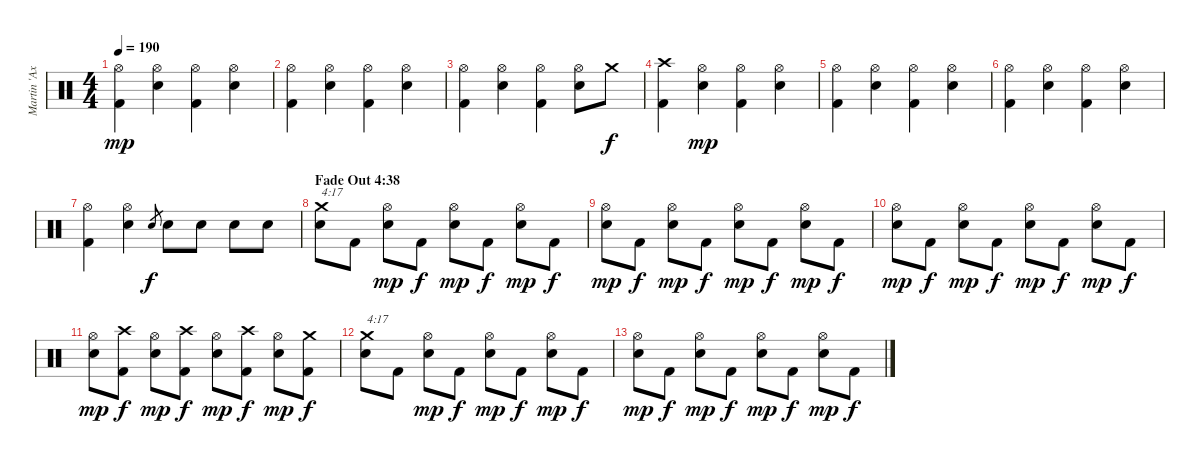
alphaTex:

\track ("Martin 'Axe' Axenroth" "Martin 'Ax") {instrument percussion}
\staff {score}
\articulation defaults
\ts (4 4)
\tempo 190
\clef neutral
\ks c
("Kick (hit) 2" "Hi-Hat (open)").4{dy mp} ("Electric Snare (hit)" "Hi-Hat (open)").4 ("Kick (hit) 2" "Hi-Hat (open)").4 ("Electric Snare (hit)" "Hi-Hat (open)").4 |
("Kick (hit) 2" "Hi-Hat (open)").4 ("Electric Snare (hit)" "Hi-Hat (open)").4 ("Kick (hit) 2" "Hi-Hat (open)").4 ("Electric Snare (hit)" "Hi-Hat (open)").4 |
("Kick (hit) 2" "Hi-Hat (open)").4 ("Electric Snare (hit)" "Hi-Hat (open)").4 ("Kick (hit) 2" "Hi-Hat (open)").4 ("Electric Snare (hit)" "Hi-Hat (open)").8 "Crash medium (hit)".8{dy f} |
("Kick (hit) 2" "Crash high (hit)").4 ("Electric Snare (hit)" "Hi-Hat (open)").4{dy mp} ("Kick (hit) 2" "Hi-Hat (open)").4 ("Electric Snare (hit)" "Hi-Hat (open)").4 |
("Kick (hit) 2" "Hi-Hat (open)").4 ("Electric Snare (hit)" "Hi-Hat (open)").4 ("Kick (hit) 2" "Hi-Hat (open)").4 ("Electric Snare (hit)" "Hi-Hat (open)").4 |
("Kick (hit) 2" "Hi-Hat (open)").4 ("Electric Snare (hit)" "Hi-Hat (open)").4 ("Kick (hit) 2" "Hi-Hat (open)").4 ("Electric Snare (hit)" "Hi-Hat (open)").4 |
("Kick (hit) 2" "Hi-Hat (open)").4 ("Electric Snare (hit)" "Hi-Hat (open)").4 "Electric Snare (hit)".8{gr dy f} "Electric Snare (hit)".8 "Electric Snare (hit)".8 "Electric Snare (hit)".8 "Electric Snare (hit)".8 |
\section ("" "Fade Out 4:38")
("Electric Snare (hit)" "Crash medium (hit)").8{txt "4:17"} "Kick (hit) 2".8 ("Electric Snare (hit)" "Hi-Hat (open)").8{dy mp} "Kick (hit) 2".8{dy f} ("Electric Snare (hit)" "Hi-Hat (open)").8{dy mp} "Kick (hit) 2".8{dy f} ("Electric Snare (hit)" "Hi-Hat (open)").8{dy mp} "Kick (hit) 2".8{dy f} |
("Electric Snare (hit)" "Hi-Hat (open)").8{dy mp} "Kick (hit) 2".8{dy f} ("Electric Snare (hit)" "Hi-Hat (open)").8{dy mp} "Kick (hit) 2".8{dy f} ("Electric Snare (hit)" "Hi-Hat (open)").8{dy mp} "Kick (hit) 2".8{dy f} ("Electric Snare (hit)" "Hi-Hat (open)").8{dy mp} "Kick (hit) 2".8{dy f} |
("Electric Snare (hit)" "Hi-Hat (open)").8{dy mp} "Kick (hit) 2".8{dy f} ("Electric Snare (hit)" "Hi-Hat (open)").8{dy mp} "Kick (hit) 2".8{dy f} ("Electric Snare (hit)" "Hi-Hat (open)").8{dy mp} "Kick (hit) 2".8{dy f} ("Electric Snare (hit)" "Hi-Hat (open)").8{dy mp} "Kick (hit) 2".8{dy f} |
("Electric Snare (hit)" "Hi-Hat (open)").8{dy mp} ("Kick (hit) 2" "Crash high (hit)").8{dy f} ("Electric Snare (hit)" "Hi-Hat (open)").8{dy mp} ("Kick (hit) 2" "Crash high (hit)").8{dy f} ("Electric Snare (hit)" "Hi-Hat (open)").8{dy mp} ("Kick (hit) 2" "Crash high (hit)").8{dy f} ("Electric Snare (hit)" "Hi-Hat (open)").8{dy mp} ("Kick (hit) 2" "Crash medium (hit)").8{dy f} |
("Electric Snare (hit)" "Crash medium (hit)").8{txt "4:17"} "Kick (hit) 2".8 ("Electric Snare (hit)" "Hi-Hat (open)").8{dy mp} "Kick (hit) 2".8{dy f} ("Electric Snare (hit)" "Hi-Hat (open)").8{dy mp} "Kick (hit) 2".8{dy f} ("Electric Snare (hit)" "Hi-Hat (open)").8{dy mp} "Kick (hit) 2".8{dy f} |
("Electric Snare (hit)" "Hi-Hat (open)").8{dy mp} "Kick (hit) 2".8{dy f} ("Electric Snare (hit)" "Hi-Hat (open)").8{dy mp} "Kick (hit) 2".8{dy f} ("Electric Snare (hit)" "Hi-Hat (open)").8{dy mp} "Kick (hit) 2".8{dy f} ("Electric Snare (hit)" "Hi-Hat (open)").8{dy mp} "Kick (hit) 2".8{dy f}
